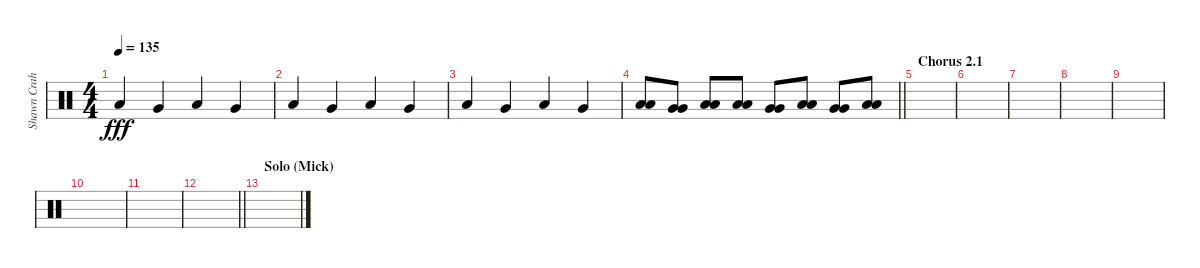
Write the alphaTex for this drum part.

\track ("Shawn Crahan" "Shawn Crah") {instrument percussion}
\staff {score}
\articulation defaults
\ts (4 4)
\tempo 135
\clef neutral
\ks c "Low Floor Tom (hit)".4{dy fff} "Very Low Tom (hit)".4 "Low Floor Tom (hit)".4 "Very Low Tom (hit)".4
|
"Low Floor Tom (hit)".4 "Very Low Tom (hit)".4 "Low Floor Tom (hit)".4 "Very Low Tom (hit)".4 |
"Low Floor Tom (hit)".4 "Very Low Tom (hit)".4 "Low Floor Tom (hit)".4 "Very Low Tom (hit)".4 |
\barLineRight lightlight
("Low Tom (hit)" "Low Tom (hit)").8 ("Very Low Tom (hit)" "Very Low Tom (hit)").8 ("Low Floor Tom (hit)" "Low Floor Tom (hit)").8 ("Low Floor Tom (hit)" "Low Floor Tom (hit)").8 ("Very Low Tom (hit)" "Very Low Tom (hit)").8 ("Low Floor Tom (hit)" "Low Floor Tom (hit)").8 ("Very Low Tom (hit)" "Very Low Tom (hit)").8 ("Low Floor Tom (hit)" "Low Floor Tom (hit)").8 |
\section ("" "Chorus 2.1")
|
|
|
|
|
|
|
\barLineRight lightlight
|
\section ("" "Solo (Mick)")
